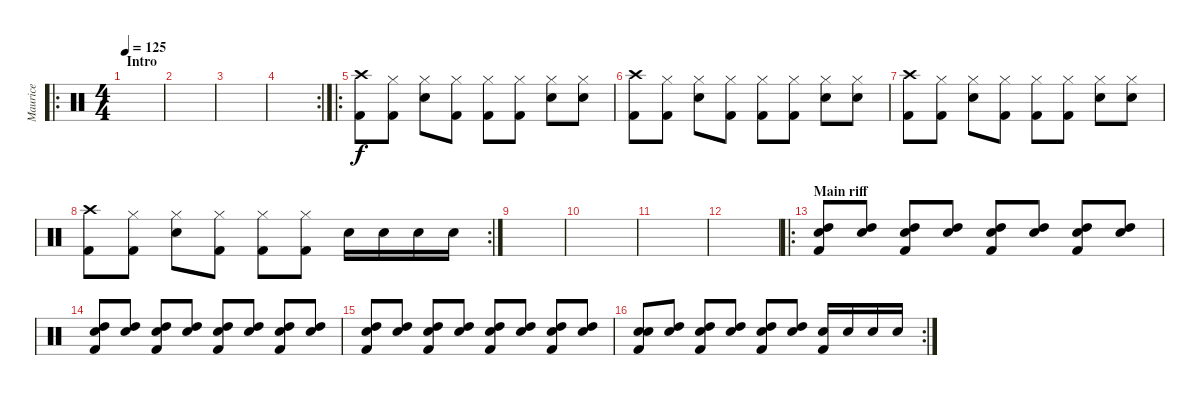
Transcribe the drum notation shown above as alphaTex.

\track ("Maurice" "Maurice") {instrument percussion}
\staff {score}
\articulation defaults
\ro
\ts (4 4)
\section ("" "Intro ")
\tempo 125
\clef neutral
\ks c
|
|
|
\rc 2
|
\ro
("Crash high (hit)" "Kick (hit) 2").8 ("Hi-Hat (closed)" "Kick (hit) 2").8 ("Hi-Hat (closed)" "Snare (hit) 2").8 ("Hi-Hat (closed)" "Kick (hit) 2").8 ("Hi-Hat (closed)" "Kick (hit) 2").8 ("Hi-Hat (closed)" "Kick (hit) 2").8 ("Hi-Hat (closed)" "Snare (hit) 2").8 ("Hi-Hat (closed)" "Snare (hit) 2").8 |
("Crash high (hit)" "Kick (hit) 2").8 ("Hi-Hat (closed)" "Kick (hit) 2").8 ("Hi-Hat (closed)" "Snare (hit) 2").8 ("Hi-Hat (closed)" "Kick (hit) 2").8 ("Hi-Hat (closed)" "Kick (hit) 2").8 ("Hi-Hat (closed)" "Kick (hit) 2").8 ("Hi-Hat (closed)" "Snare (hit) 2").8 ("Hi-Hat (closed)" "Snare (hit) 2").8 |
("Crash high (hit)" "Kick (hit) 2").8 ("Hi-Hat (closed)" "Kick (hit) 2").8 ("Hi-Hat (closed)" "Snare (hit) 2").8 ("Hi-Hat (closed)" "Kick (hit) 2").8 ("Hi-Hat (closed)" "Kick (hit) 2").8 ("Hi-Hat (closed)" "Kick (hit) 2").8 ("Hi-Hat (closed)" "Snare (hit) 2").8 ("Hi-Hat (closed)" "Snare (hit) 2").8 |
\rc 2
("Crash high (hit)" "Kick (hit) 2").8 ("Hi-Hat (closed)" "Kick (hit) 2").8 ("Hi-Hat (closed)" "Snare (hit) 2").8 ("Hi-Hat (closed)" "Kick (hit) 2").8 ("Hi-Hat (closed)" "Kick (hit) 2").8 ("Hi-Hat (closed)" "Kick (hit) 2").8 "Snare (hit) 2".16 "Snare (hit) 2".16 "Snare (hit) 2".16 "Snare (hit) 2".16 |
|
|
|
|
\ro
\section ("" "Main riff")
("Snare (hit) 2" "High Tom (hit)" "Kick (hit) 2").8 ("Snare (hit) 2" "High Tom (hit)").8 ("Snare (hit) 2" "High Tom (hit)" "Kick (hit) 2").8 ("Snare (hit) 2" "High Tom (hit)").8 ("Snare (hit) 2" "High Tom (hit)" "Kick (hit) 2").8 ("Snare (hit) 2" "High Tom (hit)").8 ("Snare (hit) 2" "High Tom (hit)" "Kick (hit) 2").8 ("Snare (hit) 2" "High Tom (hit)").8 |
("Snare (hit) 2" "High Tom (hit)" "Kick (hit) 2").8 ("Snare (hit) 2" "High Tom (hit)").8 ("Snare (hit) 2" "High Tom (hit)" "Kick (hit) 2").8 ("Snare (hit) 2" "High Tom (hit)").8 ("Snare (hit) 2" "High Tom (hit)" "Kick (hit) 2").8 ("Snare (hit) 2" "High Tom (hit)").8 ("Snare (hit) 2" "High Tom (hit)" "Kick (hit) 2").8 ("Snare (hit) 2" "High Tom (hit)").8 |
("Snare (hit) 2" "High Tom (hit)" "Kick (hit) 2").8 ("Snare (hit) 2" "High Tom (hit)").8 ("Snare (hit) 2" "High Tom (hit)" "Kick (hit) 2").8 ("Snare (hit) 2" "High Tom (hit)").8 ("Snare (hit) 2" "High Tom (hit)" "Kick (hit) 2").8 ("Snare (hit) 2" "High Tom (hit)").8 ("Snare (hit) 2" "High Tom (hit)" "Kick (hit) 2").8 ("Snare (hit) 2" "High Tom (hit)").8 |
\rc 2
("Snare (hit) 2" "Snare (hit) 2" "Kick (hit) 2").8 ("Snare (hit) 2" "High Tom (hit)").8 ("Snare (hit) 2" "High Tom (hit)" "Kick (hit) 2").8 ("Snare (hit) 2" "High Tom (hit)").8 ("Snare (hit) 2" "High Tom (hit)" "Kick (hit) 2").8 ("Snare (hit) 2" "High Tom (hit)").8 ("Snare (hit) 2" "Kick (hit) 2").16 "Snare (hit) 2".16 "Snare (hit) 2".16 "Snare (hit) 2".16
